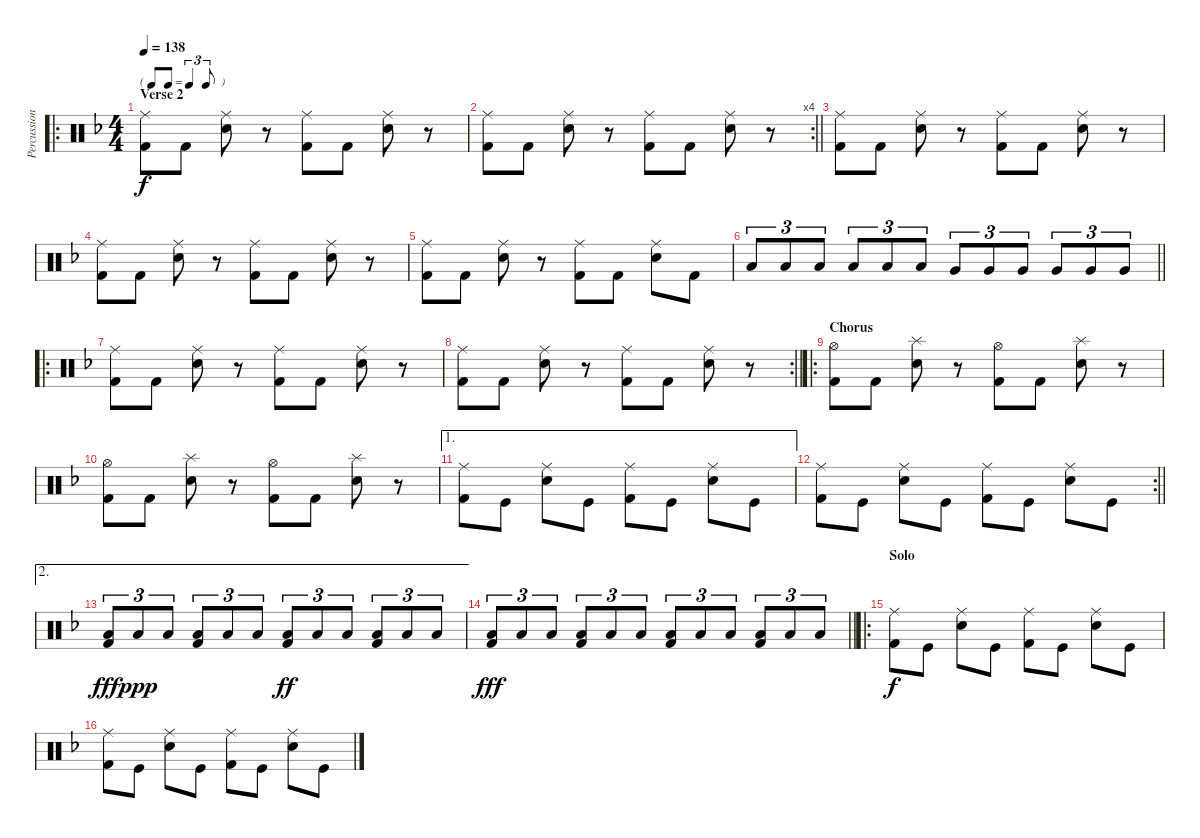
\track ("Percussion" "Percussion") {instrument percussion}
\staff {score}
\articulation defaults
\ro
\ts (4 4)
\tf triplet8th
\section ("" "Verse 2")
\tempo 138
\clef neutral
\ks f
("Ride (middle)" "Kick (hit) 2").8{dy f} "Kick (hit) 2".8 ("Ride (middle)" "Snare (hit) 2").8 r.8 ("Ride (middle)" "Kick (hit) 2").8 "Kick (hit) 2".8 ("Ride (middle)" "Snare (hit) 2").8 r.8 |
\rc 4
\barLineRight lightlight
("Ride (middle)" "Kick (hit) 2").8 "Kick (hit) 2".8 ("Ride (middle)" "Snare (hit) 2").8 r.8 ("Ride (middle)" "Kick (hit) 2").8 "Kick (hit) 2".8 ("Ride (middle)" "Snare (hit) 2").8 r.8 |
("Ride (middle)" "Kick (hit) 2").8 "Kick (hit) 2".8 ("Ride (middle)" "Snare (hit) 2").8 r.8 ("Ride (middle)" "Kick (hit) 2").8 "Kick (hit) 2".8 ("Ride (middle)" "Snare (hit) 2").8 r.8 |
("Ride (middle)" "Kick (hit) 2").8 "Kick (hit) 2".8 ("Ride (middle)" "Snare (hit) 2").8 r.8 ("Ride (middle)" "Kick (hit) 2").8 "Kick (hit) 2".8 ("Ride (middle)" "Snare (hit) 2").8 r.8 |
("Ride (middle)" "Kick (hit) 2").8 "Kick (hit) 2".8 ("Ride (middle)" "Snare (hit) 2").8 r.8 ("Ride (middle)" "Kick (hit) 2").8 "Kick (hit) 2".8 ("Ride (middle)" "Snare (hit) 2").8 "Kick (hit) 2".8 |
\barLineRight lightlight "Low Floor Tom (hit)".8{tu (3 2)} "Low Floor Tom (hit)".8{tu (3 2)} "Low Floor Tom (hit)".8{tu (3 2)} "Low Floor Tom (hit)".8{tu (3 2)} "Low Floor Tom (hit)".8{tu (3 2)} "Low Floor Tom (hit)".8{tu (3 2)} "Very Low Tom (hit)".8{tu (3 2)} "Very Low Tom (hit)".8{tu (3 2)} "Very Low Tom (hit)".8{tu (3 2)} "Very Low Tom (hit)".8{tu (3 2)} "Very Low Tom (hit)".8{tu (3 2)} "Very Low Tom (hit)".8{tu (3 2)}
|
\ro
("Ride (middle)" "Kick (hit) 2").8 "Kick (hit) 2".8 ("Ride (middle)" "Snare (hit) 2").8 r.8 ("Ride (middle)" "Kick (hit) 2").8 "Kick (hit) 2".8 ("Ride (middle)" "Snare (hit) 2").8 r.8 |
\rc 2
\barLineRight lightlight
("Ride (middle)" "Kick (hit) 2").8 "Kick (hit) 2".8 ("Ride (middle)" "Snare (hit) 2").8 r.8 ("Ride (middle)" "Kick (hit) 2").8 "Kick (hit) 2".8 ("Ride (middle)" "Snare (hit) 2").8 r.8 |
\ro
\section ("" "Chorus")
("Hi-Hat (open)" "Kick (hit) 2").8 "Kick (hit) 2".8 ("Splash (hit)" "Snare (hit) 2").8 r.8 ("Hi-Hat (open)" "Kick (hit) 2").8 "Kick (hit) 2".8 ("Splash (hit)" "Snare (hit) 2").8 r.8 |
("Hi-Hat (open)" "Kick (hit) 2").8 "Kick (hit) 2".8 ("Splash (hit)" "Snare (hit) 2").8 r.8 ("Hi-Hat (open)" "Kick (hit) 2").8 "Kick (hit) 2".8 ("Splash (hit)" "Snare (hit) 2").8 r.8 |
\ae 1
("Ride (middle)" "Kick (hit) 2").8 "Kick (hit)".8 ("Ride (middle)" "Snare (hit) 2").8 "Kick (hit)".8 ("Ride (middle)" "Kick (hit) 2").8 "Kick (hit)".8 ("Ride (middle)" "Snare (hit) 2").8 "Kick (hit)".8 |
\rc 2
\barLineRight lightlight
("Ride (middle)" "Kick (hit) 2").8 "Kick (hit)".8 ("Ride (middle)" "Snare (hit) 2").8 "Kick (hit)".8 ("Ride (middle)" "Kick (hit) 2").8 "Kick (hit)".8 ("Ride (middle)" "Snare (hit) 2").8 "Kick (hit)".8 |
\ae 2
("Low Floor Tom (hit)" "Kick (hit) 2").8{tu (3 2) dy fff} "Low Floor Tom (hit)".8{tu (3 2) dy ppp} "Low Floor Tom (hit)".8{tu (3 2)} ("Low Floor Tom (hit)" "Kick (hit) 2").8{tu (3 2)} "Low Floor Tom (hit)".8{tu (3 2)} "Low Floor Tom (hit)".8{tu (3 2)} ("Low Floor Tom (hit)" "Kick (hit) 2").8{tu (3 2) dy ff} "Low Floor Tom (hit)".8{tu (3 2)} "Low Floor Tom (hit)".8{tu (3 2)} ("Low Floor Tom (hit)" "Kick (hit) 2").8{tu (3 2)} "Low Floor Tom (hit)".8{tu (3 2)} "Low Floor Tom (hit)".8{tu (3 2)} |
\barLineRight lightlight
("Low Floor Tom (hit)" "Kick (hit) 2").8{tu (3 2) dy fff} "Low Floor Tom (hit)".8{tu (3 2)} "Low Floor Tom (hit)".8{tu (3 2)} ("Low Floor Tom (hit)" "Kick (hit) 2").8{tu (3 2)} "Low Floor Tom (hit)".8{tu (3 2)} "Low Floor Tom (hit)".8{tu (3 2)} ("Low Floor Tom (hit)" "Kick (hit) 2").8{tu (3 2)} "Low Floor Tom (hit)".8{tu (3 2)} "Low Floor Tom (hit)".8{tu (3 2)} ("Low Floor Tom (hit)" "Kick (hit) 2").8{tu (3 2)} "Low Floor Tom (hit)".8{tu (3 2)} "Low Floor Tom (hit)".8{tu (3 2)} |
\ro
\section ("" "Solo")
("Ride (middle)" "Kick (hit) 2").8{dy f} "Kick (hit)".8 ("Ride (middle)" "Snare (hit) 2").8 "Kick (hit)".8 ("Ride (middle)" "Kick (hit) 2").8 "Kick (hit)".8 ("Ride (middle)" "Snare (hit) 2").8 "Kick (hit)".8 |
("Ride (middle)" "Kick (hit) 2").8 "Kick (hit)".8 ("Ride (middle)" "Snare (hit) 2").8 "Kick (hit)".8 ("Ride (middle)" "Kick (hit) 2").8 "Kick (hit)".8 ("Ride (middle)" "Snare (hit) 2").8 "Kick (hit)".8
